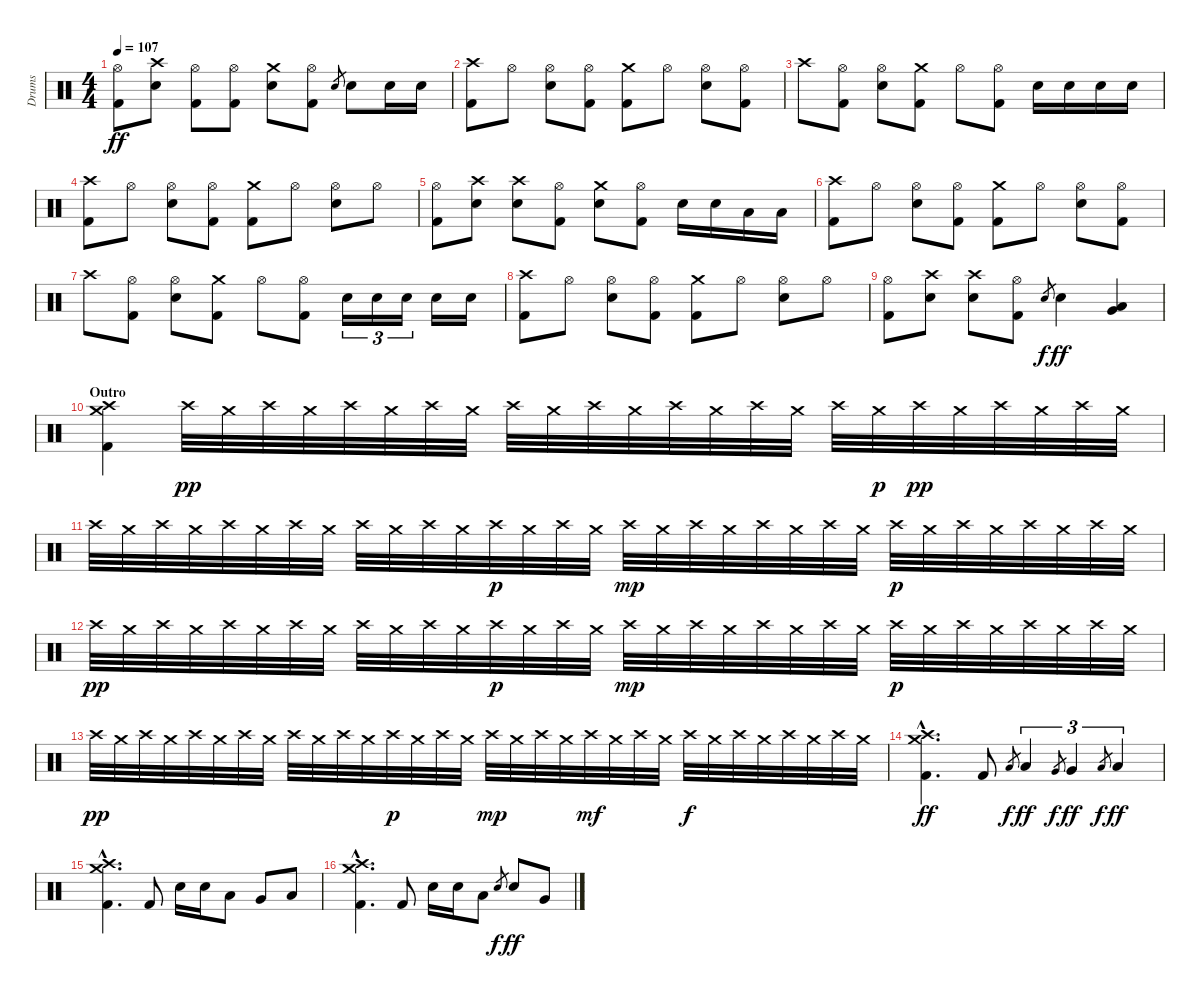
\track ("Drums" "Drums") {instrument percussion}
\staff {score}
\articulation defaults
\ts (4 4)
\tempo 107
\clef neutral
\ks c
("Hi-Hat (open)" "Kick (hit) 2").8{dy ff} ("Crash high (hit)" "Snare (hit) 2").8 ("Hi-Hat (open)" "Kick (hit) 2").8 ("Hi-Hat (open)" "Kick (hit) 2").8 ("Crash medium (hit)" "Snare (hit) 2").8 ("Hi-Hat (open)" "Kick (hit) 2").8 "Snare (hit) 2".8{gr} "Snare (hit) 2".8 "Snare (hit) 2".16 "Snare (hit) 2".16 |
("Crash high (hit)" "Kick (hit) 2").8 "Hi-Hat (open)".8 ("Hi-Hat (open)" "Snare (hit) 2").8 ("Hi-Hat (open)" "Kick (hit) 2").8 ("Crash medium (hit)" "Kick (hit) 2").8 "Hi-Hat (open)".8 ("Hi-Hat (open)" "Snare (hit) 2").8 ("Hi-Hat (open)" "Kick (hit) 2").8 |
"Crash high (hit)".8 ("Hi-Hat (open)" "Kick (hit) 2").8 ("Hi-Hat (open)" "Snare (hit) 2").8 ("Crash medium (hit)" "Kick (hit) 2").8 "Hi-Hat (open)".8 ("Hi-Hat (open)" "Kick (hit) 2").8 "Snare (hit) 2".16 "Snare (hit) 2".16 "Snare (hit) 2".16 "Snare (hit) 2".16 |
("Crash high (hit)" "Kick (hit) 2").8 "Hi-Hat (open)".8 ("Hi-Hat (open)" "Snare (hit) 2").8 ("Hi-Hat (open)" "Kick (hit) 2").8 ("Crash medium (hit)" "Kick (hit) 2").8 "Hi-Hat (open)".8 ("Hi-Hat (open)" "Snare (hit) 2").8 "Hi-Hat (open)".8 |
("Hi-Hat (open)" "Kick (hit) 2").8 ("Crash high (hit)" "Snare (hit) 2").8 ("Crash high (hit)" "Snare (hit) 2").8 ("Hi-Hat (open)" "Kick (hit) 2").8 ("Crash medium (hit)" "Snare (hit) 2").8 ("Hi-Hat (open)" "Kick (hit) 2").8 "Snare (hit) 2".16 "Snare (hit) 2".16 "Low Tom (hit)".16 "Low Tom (hit)".16 |
("Crash high (hit)" "Kick (hit) 2").8 "Hi-Hat (open)".8 ("Hi-Hat (open)" "Snare (hit) 2").8 ("Hi-Hat (open)" "Kick (hit) 2").8 ("Crash medium (hit)" "Kick (hit) 2").8 "Hi-Hat (open)".8 ("Hi-Hat (open)" "Snare (hit) 2").8 ("Hi-Hat (open)" "Kick (hit) 2").8 |
"Crash high (hit)".8 ("Hi-Hat (open)" "Kick (hit) 2").8 ("Hi-Hat (open)" "Snare (hit) 2").8 ("Crash medium (hit)" "Kick (hit) 2").8 "Hi-Hat (open)".8 ("Hi-Hat (open)" "Kick (hit) 2").8 "Snare (hit) 2".16{tu (3 2)} "Snare (hit) 2".16{tu (3 2)} "Snare (hit) 2".16{tu (3 2)} "Snare (hit) 2".16 "Snare (hit) 2".16 |
("Crash high (hit)" "Kick (hit) 2").8 "Hi-Hat (open)".8 ("Hi-Hat (open)" "Snare (hit) 2").8 ("Hi-Hat (open)" "Kick (hit) 2").8 ("Crash medium (hit)" "Kick (hit) 2").8 "Hi-Hat (open)".8 ("Hi-Hat (open)" "Snare (hit) 2").8 "Hi-Hat (open)".8 |
("Hi-Hat (open)" "Kick (hit) 2").8 ("Crash high (hit)" "Snare (hit) 2").8 ("Crash high (hit)" "Snare (hit) 2").8 ("Hi-Hat (open)" "Kick (hit) 2").8 "Snare (hit) 2".8{gr dy f} "Snare (hit) 2".4{dy ff} ("Low Tom (hit)" "Very Low Tom (hit)").4 |
\section ("" "Outro")
("Crash high (hit)" "Crash medium (hit)" "Kick (hit) 2").4 "Crash high (hit)".32{dy pp} "Crash medium (hit)".32 "Crash high (hit)".32 "Crash medium (hit)".32 "Crash high (hit)".32 "Crash medium (hit)".32 "Crash high (hit)".32 "Crash medium (hit)".32 "Crash high (hit)".32 "Crash medium (hit)".32 "Crash high (hit)".32 "Crash medium (hit)".32 "Crash high (hit)".32 "Crash medium (hit)".32 "Crash high (hit)".32 "Crash medium (hit)".32 "Crash high (hit)".32 "Crash medium (hit)".32{dy p} "Crash high (hit)".32{dy pp} "Crash medium (hit)".32 "Crash high (hit)".32 "Crash medium (hit)".32 "Crash high (hit)".32 "Crash medium (hit)".32 |
"Crash high (hit)".32 "Crash medium (hit)".32 "Crash high (hit)".32 "Crash medium (hit)".32 "Crash high (hit)".32 "Crash medium (hit)".32 "Crash high (hit)".32 "Crash medium (hit)".32 "Crash high (hit)".32 "Crash medium (hit)".32 "Crash high (hit)".32 "Crash medium (hit)".32 "Crash high (hit)".32{dy p} "Crash medium (hit)".32 "Crash high (hit)".32 "Crash medium (hit)".32 "Crash high (hit)".32{dy mp} "Crash medium (hit)".32 "Crash high (hit)".32 "Crash medium (hit)".32 "Crash high (hit)".32 "Crash medium (hit)".32 "Crash high (hit)".32 "Crash medium (hit)".32 "Crash high (hit)".32{dy p} "Crash medium (hit)".32 "Crash high (hit)".32 "Crash medium (hit)".32 "Crash high (hit)".32 "Crash medium (hit)".32 "Crash high (hit)".32 "Crash medium (hit)".32 |
"Crash high (hit)".32{dy pp} "Crash medium (hit)".32 "Crash high (hit)".32 "Crash medium (hit)".32 "Crash high (hit)".32 "Crash medium (hit)".32 "Crash high (hit)".32 "Crash medium (hit)".32 "Crash high (hit)".32 "Crash medium (hit)".32 "Crash high (hit)".32 "Crash medium (hit)".32 "Crash high (hit)".32{dy p} "Crash medium (hit)".32 "Crash high (hit)".32 "Crash medium (hit)".32 "Crash high (hit)".32{dy mp} "Crash medium (hit)".32 "Crash high (hit)".32 "Crash medium (hit)".32 "Crash high (hit)".32 "Crash medium (hit)".32 "Crash high (hit)".32 "Crash medium (hit)".32 "Crash high (hit)".32{dy p} "Crash medium (hit)".32 "Crash high (hit)".32 "Crash medium (hit)".32 "Crash high (hit)".32 "Crash medium (hit)".32 "Crash high (hit)".32 "Crash medium (hit)".32 |
"Crash high (hit)".32{dy pp} "Crash medium (hit)".32 "Crash high (hit)".32 "Crash medium (hit)".32 "Crash high (hit)".32 "Crash medium (hit)".32 "Crash high (hit)".32 "Crash medium (hit)".32 "Crash high (hit)".32 "Crash medium (hit)".32 "Crash high (hit)".32 "Crash medium (hit)".32 "Crash high (hit)".32{dy p} "Crash medium (hit)".32 "Crash high (hit)".32 "Crash medium (hit)".32 "Crash high (hit)".32{dy mp} "Crash medium (hit)".32 "Crash high (hit)".32 "Crash medium (hit)".32 "Crash high (hit)".32{dy mf} "Crash medium (hit)".32 "Crash high (hit)".32 "Crash medium (hit)".32 "Crash high (hit)".32{dy f} "Crash medium (hit)".32 "Crash high (hit)".32 "Crash medium (hit)".32 "Crash high (hit)".32 "Crash medium (hit)".32 "Crash high (hit)".32 "Crash medium (hit)".32 |
("Crash medium (hit)"{hac} "Crash high (hit)"{hac} "Kick (hit) 2"{hac}).4{d dy ff} "Kick (hit) 2".8 "Low Tom (hit)".8{gr dy f} "Low Tom (hit)".4{tu (3 2) dy ff} "Very Low Tom (hit)".8{gr dy f} "Very Low Tom (hit)".4{tu (3 2) dy ff} "Low Floor Tom (hit)".8{gr dy f} "Low Floor Tom (hit)".4{tu (3 2) dy ff} |
("Crash medium (hit)"{hac} "Crash high (hit)"{hac} "Kick (hit) 2"{hac}).4{d} "Kick (hit) 2".8 "Snare (hit) 2".16 "Snare (hit) 2".16 "Low Tom (hit)".8 "Very Low Tom (hit)".8 "Low Floor Tom (hit)".8 |
("Crash high (hit)"{hac} "Crash medium (hit)"{hac} "Kick (hit) 2"{hac}).4{d} "Kick (hit) 2".8 "Snare (hit) 2".16 "Snare (hit) 2".16 "Low Tom (hit)".8 "Snare (hit) 2".8{gr dy f} "Snare (hit) 2".8{dy ff} "Very Low Tom (hit)".8
